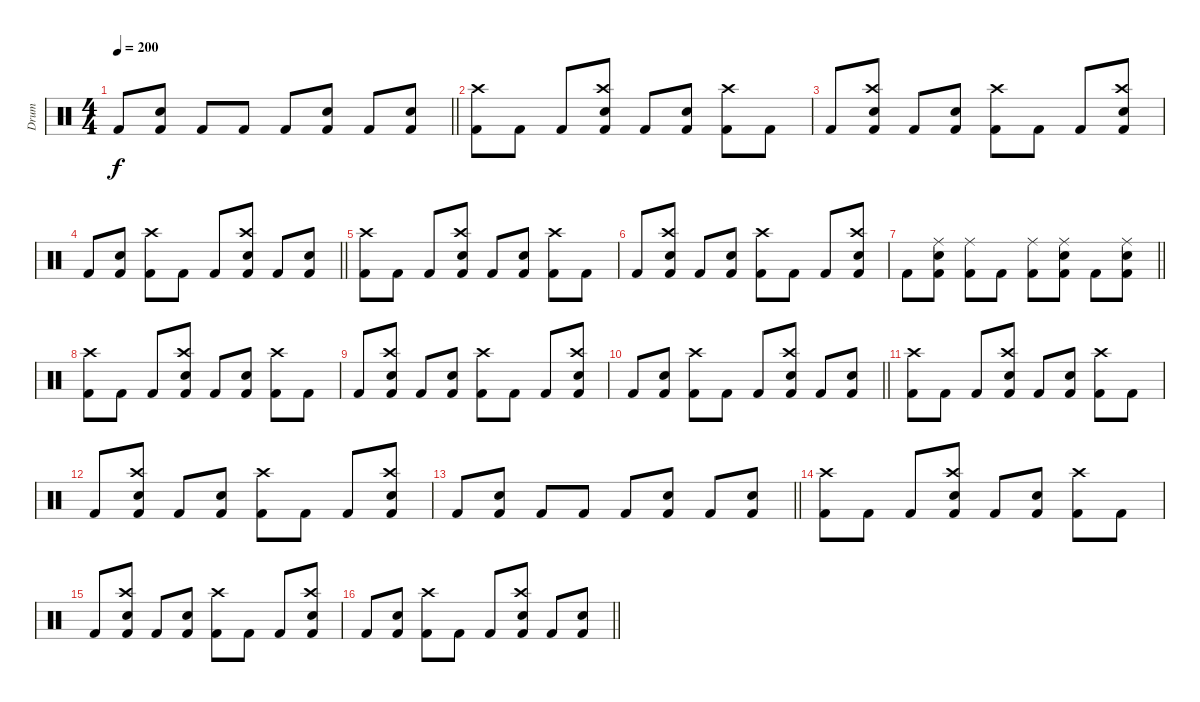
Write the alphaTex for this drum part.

\track ("Drum" "Drum") {instrument percussion}
\staff {score}
\articulation defaults
\ts (4 4)
\tempo 200
\clef neutral
\barLineRight lightlight
\ks c "Kick (hit) 2".8{dy f}
("Electric Snare (hit)" "Kick (hit) 2").8 "Kick (hit) 2".8 "Kick (hit) 2".8 "Kick (hit) 2".8 ("Electric Snare (hit)" "Kick (hit) 2").8 "Kick (hit) 2".8 ("Electric Snare (hit)" "Kick (hit) 2").8 |
("Crash high (hit)" "Kick (hit) 2").8 "Kick (hit) 2".8 "Kick (hit) 2".8 ("Snare (hit) 2" "Crash high (hit)" "Kick (hit) 2").8 "Kick (hit) 2".8 ("Snare (hit) 2" "Kick (hit) 2").8 ("Crash high (hit)" "Kick (hit) 2").8 "Kick (hit) 2".8 |
"Kick (hit) 2".8 ("Snare (hit) 2" "Crash high (hit)" "Kick (hit) 2").8 "Kick (hit) 2".8 ("Snare (hit) 2" "Kick (hit) 2").8 ("Crash high (hit)" "Kick (hit) 2").8 "Kick (hit) 2".8 "Kick (hit) 2".8 ("Snare (hit) 2" "Crash high (hit)" "Kick (hit) 2").8 |
\barLineRight lightlight "Kick (hit) 2".8
("Snare (hit) 2" "Kick (hit) 2").8 ("Crash high (hit)" "Kick (hit) 2").8 "Kick (hit) 2".8 "Kick (hit) 2".8 ("Snare (hit) 2" "Crash high (hit)" "Kick (hit) 2").8 "Kick (hit) 2".8 ("Snare (hit) 2" "Kick (hit) 2").8 |
("Crash high (hit)" "Kick (hit) 2").8 "Kick (hit) 2".8 "Kick (hit) 2".8 ("Snare (hit) 2" "Crash high (hit)" "Kick (hit) 2").8 "Kick (hit) 2".8 ("Snare (hit) 2" "Kick (hit) 2").8 ("Crash high (hit)" "Kick (hit) 2").8 "Kick (hit) 2".8 |
"Kick (hit) 2".8 ("Snare (hit) 2" "Crash high (hit)" "Kick (hit) 2").8 "Kick (hit) 2".8 ("Snare (hit) 2" "Kick (hit) 2").8 ("Crash high (hit)" "Kick (hit) 2").8 "Kick (hit) 2".8 "Kick (hit) 2".8 ("Snare (hit) 2" "Crash high (hit)" "Kick (hit) 2").8 |
\barLineRight lightlight "Kick (hit) 2".8
("Ride (middle)" "Electric Snare (hit)" "Kick (hit) 2").8 ("Ride (middle)" "Kick (hit) 2").8 "Kick (hit) 2".8 ("Ride (middle)" "Kick (hit) 2").8 ("Ride (middle)" "Electric Snare (hit)" "Kick (hit) 2").8 "Kick (hit) 2".8 ("Ride (middle)" "Electric Snare (hit)" "Kick (hit) 2").8 |
("Crash high (hit)" "Kick (hit) 2").8 "Kick (hit) 2".8 "Kick (hit) 2".8 ("Snare (hit) 2" "Crash high (hit)" "Kick (hit) 2").8 "Kick (hit) 2".8 ("Snare (hit) 2" "Kick (hit) 2").8 ("Crash high (hit)" "Kick (hit) 2").8 "Kick (hit) 2".8 |
"Kick (hit) 2".8 ("Snare (hit) 2" "Crash high (hit)" "Kick (hit) 2").8 "Kick (hit) 2".8 ("Snare (hit) 2" "Kick (hit) 2").8 ("Crash high (hit)" "Kick (hit) 2").8 "Kick (hit) 2".8 "Kick (hit) 2".8 ("Snare (hit) 2" "Crash high (hit)" "Kick (hit) 2").8 |
\barLineRight lightlight "Kick (hit) 2".8
("Snare (hit) 2" "Kick (hit) 2").8 ("Crash high (hit)" "Kick (hit) 2").8 "Kick (hit) 2".8 "Kick (hit) 2".8 ("Snare (hit) 2" "Crash high (hit)" "Kick (hit) 2").8 "Kick (hit) 2".8 ("Snare (hit) 2" "Kick (hit) 2").8 |
("Crash high (hit)" "Kick (hit) 2").8 "Kick (hit) 2".8 "Kick (hit) 2".8 ("Snare (hit) 2" "Crash high (hit)" "Kick (hit) 2").8 "Kick (hit) 2".8 ("Snare (hit) 2" "Kick (hit) 2").8 ("Crash high (hit)" "Kick (hit) 2").8 "Kick (hit) 2".8 |
"Kick (hit) 2".8 ("Snare (hit) 2" "Crash high (hit)" "Kick (hit) 2").8 "Kick (hit) 2".8 ("Snare (hit) 2" "Kick (hit) 2").8 ("Crash high (hit)" "Kick (hit) 2").8 "Kick (hit) 2".8 "Kick (hit) 2".8 ("Snare (hit) 2" "Crash high (hit)" "Kick (hit) 2").8 |
\barLineRight lightlight "Kick (hit) 2".8
("Electric Snare (hit)" "Kick (hit) 2").8 "Kick (hit) 2".8 "Kick (hit) 2".8 "Kick (hit) 2".8 ("Electric Snare (hit)" "Kick (hit) 2").8 "Kick (hit) 2".8 ("Electric Snare (hit)" "Kick (hit) 2").8 |
("Crash high (hit)" "Kick (hit) 2").8 "Kick (hit) 2".8 "Kick (hit) 2".8 ("Snare (hit) 2" "Crash high (hit)" "Kick (hit) 2").8 "Kick (hit) 2".8 ("Snare (hit) 2" "Kick (hit) 2").8 ("Crash high (hit)" "Kick (hit) 2").8 "Kick (hit) 2".8 |
"Kick (hit) 2".8 ("Snare (hit) 2" "Crash high (hit)" "Kick (hit) 2").8 "Kick (hit) 2".8 ("Snare (hit) 2" "Kick (hit) 2").8 ("Crash high (hit)" "Kick (hit) 2").8 "Kick (hit) 2".8 "Kick (hit) 2".8 ("Snare (hit) 2" "Crash high (hit)" "Kick (hit) 2").8 |
\barLineRight lightlight "Kick (hit) 2".8
("Snare (hit) 2" "Kick (hit) 2").8 ("Crash high (hit)" "Kick (hit) 2").8 "Kick (hit) 2".8 "Kick (hit) 2".8 ("Snare (hit) 2" "Crash high (hit)" "Kick (hit) 2").8 "Kick (hit) 2".8 ("Snare (hit) 2" "Kick (hit) 2").8
